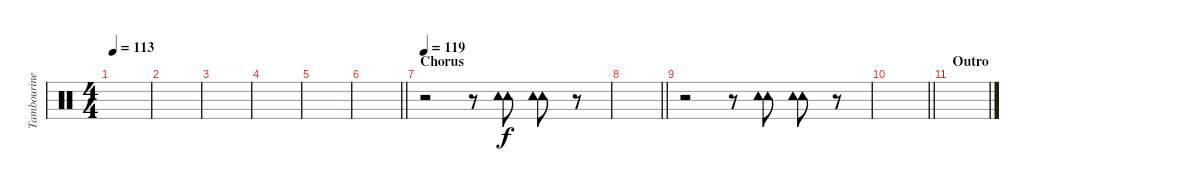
\track ("Tambourine (John Lennon)" "Tambourine") {instrument percussion}
\staff {score}
\articulation defaults
\ts (4 4)
\tempo 113
\clef neutral
\ks c
|
|
|
|
|
\barLineRight lightlight
|
\section ("" "Chorus")
\tempo 119
r.2 r.8 ("Tambourine (hit)" "Tambourine (hit)").8{bd 60} ("Tambourine (hit)" "Tambourine (hit)").8{bd 60} r.8 |
\barLineRight lightlight
|
r.2 r.8 ("Tambourine (hit)" "Tambourine (hit)").8{bd 60} ("Tambourine (hit)" "Tambourine (hit)").8{bd 60} r.8 |
\barLineRight lightlight
|
\section ("" "Outro")
